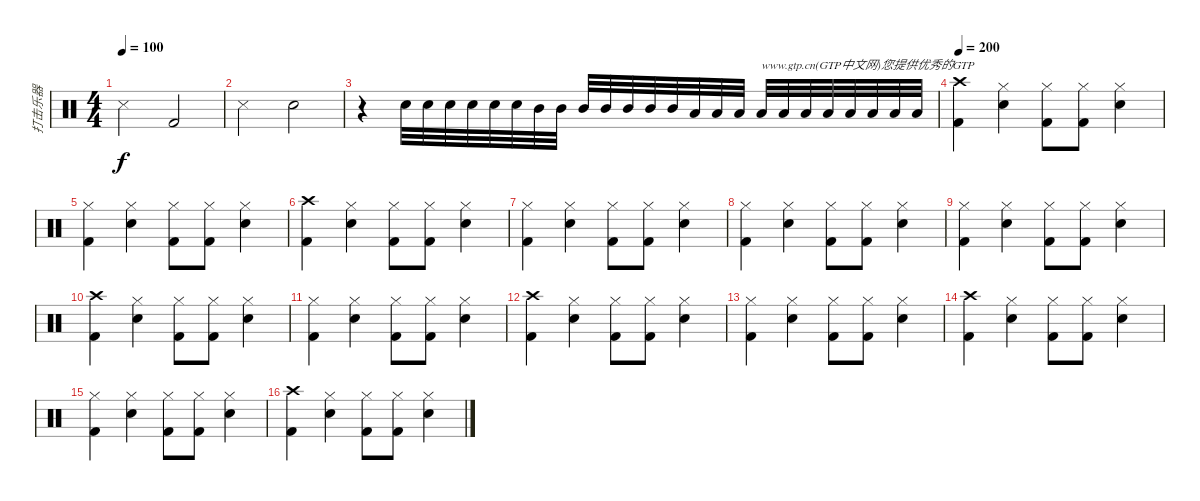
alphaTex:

\track ("打击乐器" "打击乐器") {instrument percussion}
\staff {score}
\articulation defaults
\ts (4 4)
\tempo 100
\clef neutral
\ks c "Snare (side stick) 3".2{dy f} "Kick (hit) 2".2
|
"Snare (side stick) 3".2 "Snare (hit) 2".2 |
r.4 "Snare (hit) 2".32 "Snare (hit) 2".32 "Snare (hit) 2".32 "Snare (hit) 2".32 "Snare (hit) 2".32 "Snare (hit) 2".32 "Mid Tom (hit)".32 "Mid Tom (hit)".32 "Mid Tom (hit)".32 "Mid Tom (hit)".32 "Mid Tom (hit)".32 "Mid Tom (hit)".32 "Mid Tom (hit)".32 "Low Tom (hit)".32 "Low Tom (hit)".32 "Low Tom (hit)".32 "Low Tom (hit)".32{txt "www.gtp.cn(GTP中文网)您提供优秀的GTP"} "Low Tom (hit)".32 "Low Tom (hit)".32 "Low Tom (hit)".32 "Low Floor Tom (hit)".32 "Low Floor Tom (hit)".32 "Low Floor Tom (hit)".32 "Low Floor Tom (hit)".32 |
\tempo 200
("Crash high (hit)" "Kick (hit) 2").4 ("Hi-Hat (closed)" "Snare (hit) 2").4 ("Hi-Hat (closed)" "Kick (hit) 2").8 ("Hi-Hat (closed)" "Kick (hit) 2").8 ("Hi-Hat (closed)" "Snare (hit) 2").4 |
("Hi-Hat (closed)" "Kick (hit) 2").4 ("Hi-Hat (closed)" "Snare (hit) 2").4 ("Hi-Hat (closed)" "Kick (hit) 2").8 ("Hi-Hat (closed)" "Kick (hit) 2").8 ("Hi-Hat (closed)" "Snare (hit) 2").4 |
("Crash high (hit)" "Kick (hit) 2").4 ("Hi-Hat (closed)" "Snare (hit) 2").4 ("Hi-Hat (closed)" "Kick (hit) 2").8 ("Hi-Hat (closed)" "Kick (hit) 2").8 ("Hi-Hat (closed)" "Snare (hit) 2").4 |
("Hi-Hat (closed)" "Kick (hit) 2").4 ("Hi-Hat (closed)" "Snare (hit) 2").4 ("Hi-Hat (closed)" "Kick (hit) 2").8 ("Hi-Hat (closed)" "Kick (hit) 2").8 ("Hi-Hat (closed)" "Snare (hit) 2").4 |
("Hi-Hat (closed)" "Kick (hit) 2").4 ("Hi-Hat (closed)" "Snare (hit) 2").4 ("Hi-Hat (closed)" "Kick (hit) 2").8 ("Hi-Hat (closed)" "Kick (hit) 2").8 ("Hi-Hat (closed)" "Snare (hit) 2").4 |
("Hi-Hat (closed)" "Kick (hit) 2").4 ("Hi-Hat (closed)" "Snare (hit) 2").4 ("Hi-Hat (closed)" "Kick (hit) 2").8 ("Hi-Hat (closed)" "Kick (hit) 2").8 ("Hi-Hat (closed)" "Snare (hit) 2").4 |
("Crash high (hit)" "Kick (hit) 2").4 ("Hi-Hat (closed)" "Snare (hit) 2").4 ("Hi-Hat (closed)" "Kick (hit) 2").8 ("Hi-Hat (closed)" "Kick (hit) 2").8 ("Hi-Hat (closed)" "Snare (hit) 2").4 |
("Hi-Hat (closed)" "Kick (hit) 2").4 ("Hi-Hat (closed)" "Snare (hit) 2").4 ("Hi-Hat (closed)" "Kick (hit) 2").8 ("Hi-Hat (closed)" "Kick (hit) 2").8 ("Hi-Hat (closed)" "Snare (hit) 2").4 |
("Crash high (hit)" "Kick (hit) 2").4 ("Hi-Hat (closed)" "Snare (hit) 2").4 ("Hi-Hat (closed)" "Kick (hit) 2").8 ("Hi-Hat (closed)" "Kick (hit) 2").8 ("Hi-Hat (closed)" "Snare (hit) 2").4 |
("Hi-Hat (closed)" "Kick (hit) 2").4 ("Hi-Hat (closed)" "Snare (hit) 2").4 ("Hi-Hat (closed)" "Kick (hit) 2").8 ("Hi-Hat (closed)" "Kick (hit) 2").8 ("Hi-Hat (closed)" "Snare (hit) 2").4 |
("Crash high (hit)" "Kick (hit) 2").4 ("Hi-Hat (closed)" "Snare (hit) 2").4 ("Hi-Hat (closed)" "Kick (hit) 2").8 ("Hi-Hat (closed)" "Kick (hit) 2").8 ("Hi-Hat (closed)" "Snare (hit) 2").4 |
("Hi-Hat (closed)" "Kick (hit) 2").4 ("Hi-Hat (closed)" "Snare (hit) 2").4 ("Hi-Hat (closed)" "Kick (hit) 2").8 ("Hi-Hat (closed)" "Kick (hit) 2").8 ("Hi-Hat (closed)" "Snare (hit) 2").4 |
("Crash high (hit)" "Kick (hit) 2").4 ("Hi-Hat (closed)" "Snare (hit) 2").4 ("Hi-Hat (closed)" "Kick (hit) 2").8 ("Hi-Hat (closed)" "Kick (hit) 2").8 ("Hi-Hat (closed)" "Snare (hit) 2").4
